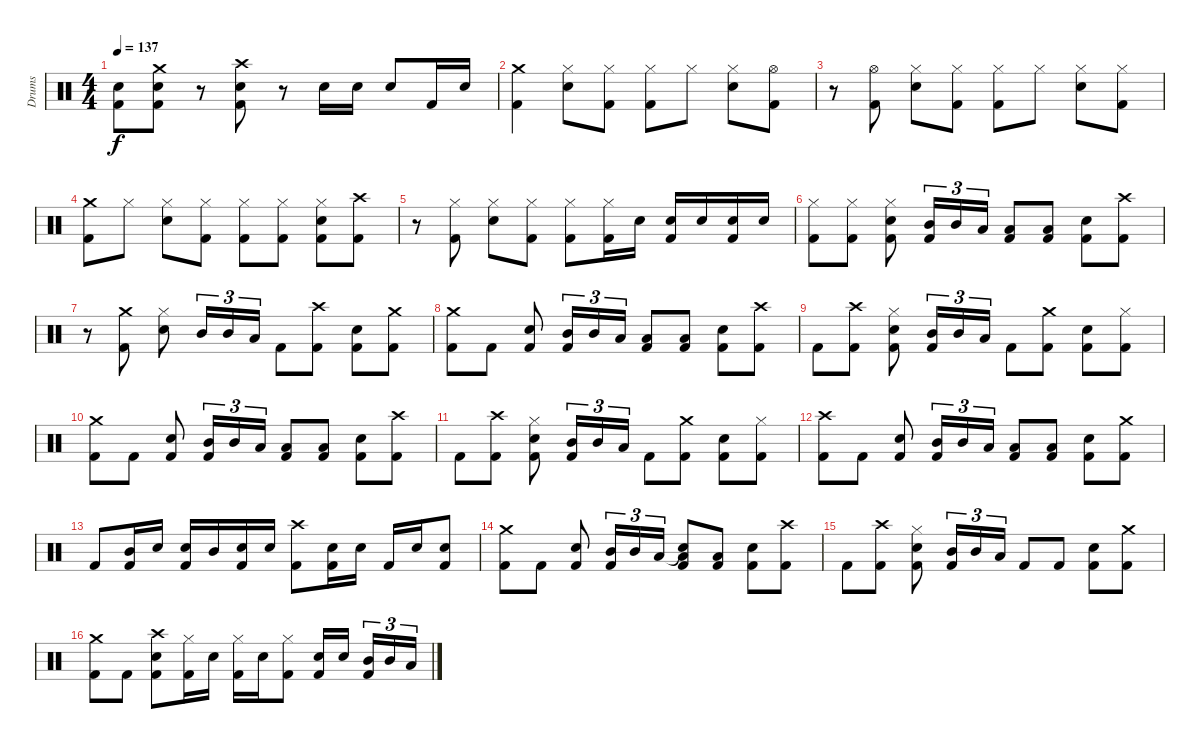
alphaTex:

\track ("Drums" "Drums") {instrument percussion}
\staff {score}
\articulation defaults
\ts (4 4)
\tempo 137
\clef neutral
\ks c
("Snare (hit) 2" "Kick (hit) 2").8{dy f} ("Crash medium (hit)" "Snare (hit) 2" "Kick (hit) 2").8 r.8 ("Crash high (hit)" "Snare (hit) 2" "Kick (hit) 2").8 r.8 "Snare (hit) 2".16 "Snare (hit) 2".16 "Snare (hit) 2".8 "Kick (hit) 2".16 "Snare (hit) 2".16 |
("Crash medium (hit)" "Kick (hit) 2").4 ("Hi-Hat (closed)" "Snare (hit) 2").8 ("Hi-Hat (closed)" "Kick (hit) 2").8 ("Hi-Hat (closed)" "Kick (hit) 2").8 "Hi-Hat (closed)".8 ("Hi-Hat (closed)" "Snare (hit) 2").8 ("Hi-Hat (open)" "Kick (hit) 2").8 |
r.8 ("Hi-Hat (open)" "Kick (hit) 2").8 ("Hi-Hat (closed)" "Snare (hit) 2").8 ("Hi-Hat (closed)" "Kick (hit) 2").8 ("Hi-Hat (closed)" "Kick (hit) 2").8 "Hi-Hat (closed)".8 ("Hi-Hat (closed)" "Snare (hit) 2").8 ("Hi-Hat (closed)" "Kick (hit) 2").8 |
("Crash medium (hit)" "Kick (hit) 2").8 "Hi-Hat (closed)".8 ("Hi-Hat (closed)" "Snare (hit) 2").8 ("Hi-Hat (closed)" "Kick (hit) 2").8 ("Hi-Hat (closed)" "Kick (hit) 2").8 ("Hi-Hat (closed)" "Kick (hit) 2").8 ("Hi-Hat (closed)" "Snare (hit) 2" "Kick (hit) 2").8 ("Crash high (hit)" "Kick (hit) 2").8 |
r.8 ("Hi-Hat (closed)" "Kick (hit) 2").8 ("Hi-Hat (closed)" "Snare (hit) 2").8 ("Hi-Hat (closed)" "Kick (hit) 2").8 ("Hi-Hat (closed)" "Kick (hit) 2").8 ("Hi-Hat (closed)" "Kick (hit) 2").16 "Snare (hit) 2".16 ("Snare (hit) 2" "Kick (hit) 2").16 "Snare (hit) 2".16 ("Snare (hit) 2" "Kick (hit) 2").16 "Snare (hit) 2".16 |
("Hi-Hat (closed)" "Kick (hit) 2").8 ("Hi-Hat (closed)" "Kick (hit) 2").8 ("Hi-Hat (closed)" "Snare (hit) 2" "Kick (hit) 2").8 ("Mid Tom (hit)" "Kick (hit) 2").16{tu (3 2)} "Mid Tom (hit)".16{tu (3 2)} "Low Tom (hit)".16{tu (3 2)} ("Low Tom (hit)" "Kick (hit) 2").8 ("Low Tom (hit)" "Kick (hit) 2").8 ("Snare (hit) 2" "Kick (hit) 2").8 ("Crash high (hit)" "Kick (hit) 2").8 |
r.8 ("Crash medium (hit)" "Kick (hit) 2").8 ("Hi-Hat (closed)" "Snare (hit) 2").8 "Mid Tom (hit)".16{tu (3 2)} "Mid Tom (hit)".16{tu (3 2)} "Low Tom (hit)".16{tu (3 2)} "Kick (hit) 2".8 ("Crash high (hit)" "Kick (hit) 2").8 ("Snare (hit) 2" "Kick (hit) 2").8 ("Crash medium (hit)" "Kick (hit) 2").8 |
("Crash medium (hit)" "Kick (hit) 2").8 "Kick (hit) 2".8 ("Snare (hit) 2" "Kick (hit) 2").8 ("Mid Tom (hit)" "Kick (hit) 2").16{tu (3 2)} "Mid Tom (hit)".16{tu (3 2)} "Low Tom (hit)".16{tu (3 2)} ("Low Tom (hit)" "Kick (hit) 2").8 ("Low Tom (hit)" "Kick (hit) 2").8 ("Snare (hit) 2" "Kick (hit) 2").8 ("Crash high (hit)" "Kick (hit) 2").8 |
"Kick (hit) 2".8 ("Crash high (hit)" "Kick (hit) 2").8 ("Hi-Hat (closed)" "Snare (hit) 2" "Kick (hit) 2").8 ("Mid Tom (hit)" "Kick (hit) 2").16{tu (3 2)} "Mid Tom (hit)".16{tu (3 2)} "Low Tom (hit)".16{tu (3 2)} "Kick (hit) 2".8 ("Crash medium (hit)" "Kick (hit) 2").8 ("Snare (hit) 2" "Kick (hit) 2").8 ("Hi-Hat (closed)" "Kick (hit) 2").8 |
("Crash medium (hit)" "Kick (hit) 2").8 "Kick (hit) 2".8 ("Snare (hit) 2" "Kick (hit) 2").8 ("Mid Tom (hit)" "Kick (hit) 2").16{tu (3 2)} "Mid Tom (hit)".16{tu (3 2)} "Low Tom (hit)".16{tu (3 2)} ("Low Tom (hit)" "Kick (hit) 2").8 ("Low Tom (hit)" "Kick (hit) 2").8 ("Snare (hit) 2" "Kick (hit) 2").8 ("Crash high (hit)" "Kick (hit) 2").8 |
"Kick (hit) 2".8 ("Crash high (hit)" "Kick (hit) 2").8 ("Hi-Hat (closed)" "Snare (hit) 2" "Kick (hit) 2").8 ("Mid Tom (hit)" "Kick (hit) 2").16{tu (3 2)} "Mid Tom (hit)".16{tu (3 2)} "Low Tom (hit)".16{tu (3 2)} "Kick (hit) 2".8 ("Crash medium (hit)" "Kick (hit) 2").8 ("Snare (hit) 2" "Kick (hit) 2").8 ("Hi-Hat (closed)" "Kick (hit) 2").8 |
("Crash high (hit)" "Kick (hit) 2").8 "Kick (hit) 2".8 ("Snare (hit) 2" "Kick (hit) 2").8 ("Mid Tom (hit)" "Kick (hit) 2").16{tu (3 2)} "Mid Tom (hit)".16{tu (3 2)} "Low Tom (hit)".16{tu (3 2)} ("Low Tom (hit)" "Kick (hit) 2").8 ("Low Tom (hit)" "Kick (hit) 2").8 ("Snare (hit) 2" "Kick (hit) 2").8 ("Crash medium (hit)" "Kick (hit) 2").8 |
"Kick (hit) 2".8 ("Mid Tom (hit)" "Kick (hit) 2").16 "Snare (hit) 2".16 ("Snare (hit) 2" "Kick (hit) 2").16 "Mid Tom (hit)".16 ("Snare (hit) 2" "Kick (hit) 2").16 "Snare (hit) 2".16 ("Crash high (hit)" "Kick (hit) 2").8 ("Snare (hit) 2" "Kick (hit) 2").16 "Snare (hit) 2".16 "Kick (hit) 2".16 "Snare (hit) 2".16 ("Snare (hit) 2" "Kick (hit) 2").8 |
("Crash medium (hit)" "Kick (hit) 2").8 "Kick (hit) 2".8 ("Snare (hit) 2" "Kick (hit) 2").8 ("Mid Tom (hit)" "Kick (hit) 2").16{tu (3 2)} "Mid Tom (hit)".16{tu (3 2)} "Low Tom (hit)".16{tu (3 2)} ("Snare (hit)"{t} "Low Tom (hit)" "Kick (hit) 2").8 ("Low Tom (hit)" "Kick (hit) 2").8 ("Snare (hit) 2" "Kick (hit) 2").8 ("Crash high (hit)" "Kick (hit) 2").8 |
"Kick (hit) 2".8 ("Crash high (hit)" "Kick (hit) 2").8 ("Hi-Hat (closed)" "Snare (hit) 2" "Kick (hit) 2").8 ("Mid Tom (hit)" "Kick (hit) 2").16{tu (3 2)} "Mid Tom (hit)".16{tu (3 2)} "Low Tom (hit)".16{tu (3 2)} "Kick (hit) 2".8 "Kick (hit) 2".8 ("Snare (hit) 2" "Kick (hit) 2").8 ("Crash medium (hit)" "Kick (hit) 2").8 |
("Crash medium (hit)" "Kick (hit) 2").8 "Kick (hit) 2".8 ("Crash high (hit)" "Snare (hit) 2" "Kick (hit) 2").8 ("Hi-Hat (closed)" "Kick (hit) 2").16 "Snare (hit) 2".16 ("Hi-Hat (closed)" "Kick (hit) 2").16 "Snare (hit) 2".16 ("Hi-Hat (closed)" "Kick (hit) 2").8 ("Snare (hit) 2" "Kick (hit) 2").16 "Snare (hit) 2".16 ("Mid Tom (hit)" "Kick (hit) 2").16{tu (3 2)} "Mid Tom (hit)".16{tu (3 2)} "Low Tom (hit)".16{tu (3 2)}
